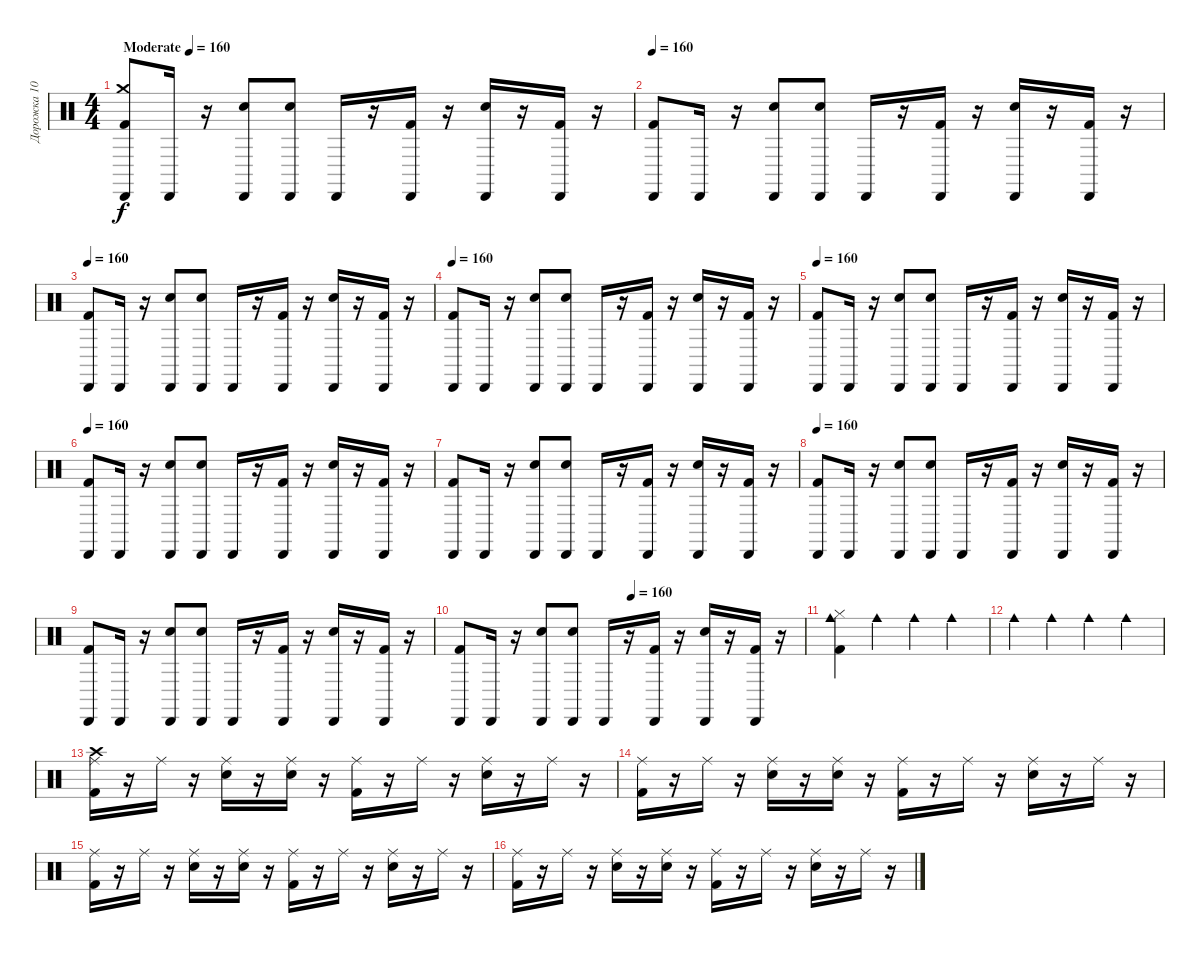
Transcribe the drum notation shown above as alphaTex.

\track ("Дорожка 10" "Дорожка 10") {instrument percussion}
\staff {score}
\articulation defaults
\ts (4 4)
\tempo (160 "Moderate")
\clef neutral
\ks c
("Cabasa (hit)" "Crash medium (hit)" "Kick (hit) 2").8{dy f} "Cabasa (hit)".16 r.16 ("Cabasa (hit)" "Electric Snare (hit)").8 ("Cabasa (hit)" "Electric Snare (hit)").8 "Cabasa (hit)".16 r.16 ("Cabasa (hit)" "Kick (hit) 2").16 r.16 ("Cabasa (hit)" "Electric Snare (hit)").16 r.16 ("Cabasa (hit)" "Kick (hit) 2").16 r.16 |
\tempo 160
("Cabasa (hit)" "Kick (hit) 2").8 "Cabasa (hit)".16 r.16 ("Cabasa (hit)" "Electric Snare (hit)").8 ("Cabasa (hit)" "Electric Snare (hit)").8 "Cabasa (hit)".16 r.16 ("Cabasa (hit)" "Kick (hit) 2").16 r.16 ("Cabasa (hit)" "Electric Snare (hit)").16 r.16 ("Cabasa (hit)" "Kick (hit) 2").16 r.16 |
\tempo 160
("Kick (hit) 2" "Cabasa (hit)").8 "Cabasa (hit)".16 r.16 ("Electric Snare (hit)" "Cabasa (hit)").8 ("Electric Snare (hit)" "Cabasa (hit)").8 "Cabasa (hit)".16 r.16 ("Kick (hit) 2" "Cabasa (hit)").16 r.16 ("Electric Snare (hit)" "Cabasa (hit)").16 r.16 ("Kick (hit) 2" "Cabasa (hit)").16 r.16 |
\tempo 160
("Kick (hit) 2" "Cabasa (hit)").8 "Cabasa (hit)".16 r.16 ("Electric Snare (hit)" "Cabasa (hit)").8 ("Electric Snare (hit)" "Cabasa (hit)").8 "Cabasa (hit)".16 r.16 ("Kick (hit) 2" "Cabasa (hit)").16 r.16 ("Electric Snare (hit)" "Cabasa (hit)").16 r.16 ("Kick (hit) 2" "Cabasa (hit)").16 r.16 |
\tempo 160
("Kick (hit) 2" "Cabasa (hit)").8 "Cabasa (hit)".16 r.16 ("Electric Snare (hit)" "Cabasa (hit)").8 ("Electric Snare (hit)" "Cabasa (hit)").8 "Cabasa (hit)".16 r.16 ("Kick (hit) 2" "Cabasa (hit)").16 r.16 ("Electric Snare (hit)" "Cabasa (hit)").16 r.16 ("Kick (hit) 2" "Cabasa (hit)").16 r.16 |
\tempo 160
("Kick (hit) 2" "Cabasa (hit)").8 "Cabasa (hit)".16 r.16 ("Electric Snare (hit)" "Cabasa (hit)").8 ("Electric Snare (hit)" "Cabasa (hit)").8 "Cabasa (hit)".16 r.16 ("Kick (hit) 2" "Cabasa (hit)").16 r.16 ("Electric Snare (hit)" "Cabasa (hit)").16 r.16 ("Kick (hit) 2" "Cabasa (hit)").16 r.16 |
("Cabasa (hit)" "Kick (hit) 2").8 "Cabasa (hit)".16 r.16 ("Cabasa (hit)" "Electric Snare (hit)").8 ("Cabasa (hit)" "Electric Snare (hit)").8 "Cabasa (hit)".16 r.16 ("Cabasa (hit)" "Kick (hit) 2").16 r.16 ("Cabasa (hit)" "Electric Snare (hit)").16 r.16 ("Cabasa (hit)" "Kick (hit) 2").16 r.16 |
\tempo 160
("Cabasa (hit)" "Kick (hit) 2").8 "Cabasa (hit)".16 r.16 ("Cabasa (hit)" "Electric Snare (hit)").8 ("Cabasa (hit)" "Electric Snare (hit)").8 "Cabasa (hit)".16 r.16 ("Cabasa (hit)" "Kick (hit) 2").16 r.16 ("Cabasa (hit)" "Electric Snare (hit)").16 r.16 ("Cabasa (hit)" "Kick (hit) 2").16 r.16 |
("Cabasa (hit)" "Kick (hit) 2").8 "Cabasa (hit)".16 r.16 ("Electric Snare (hit)" "Cabasa (hit)").8 ("Electric Snare (hit)" "Cabasa (hit)").8 "Cabasa (hit)".16 r.16 ("Kick (hit) 2" "Cabasa (hit)").16 r.16 ("Electric Snare (hit)" "Cabasa (hit)").16 r.16 ("Kick (hit) 2" "Cabasa (hit)").16 r.16 |
\tempo (160 0.5)
("Cabasa (hit)" "Kick (hit) 2").8 "Cabasa (hit)".16 r.16 ("Electric Snare (hit)" "Cabasa (hit)").8 ("Electric Snare (hit)" "Cabasa (hit)").8 "Cabasa (hit)".16 r.16 ("Kick (hit) 2" "Cabasa (hit)").16 r.16 ("Electric Snare (hit)" "Cabasa (hit)").16 r.16 ("Kick (hit) 2" "Cabasa (hit)").16 r.16 |
("Cowbell medium (hit)" "Hi-Hat (closed)" "Kick (hit) 2").4 "Cowbell medium (hit)".4 "Cowbell medium (hit)".4 "Cowbell medium (hit)".4 |
"Cowbell medium (hit)".4 "Cowbell medium (hit)".4 "Cowbell medium (hit)".4 "Cowbell medium (hit)".4 |
("Ride (middle)" "Crash high (hit)" "Kick (hit) 2").16 r.16 "Ride (middle)".16 r.16 ("Ride (middle)" "Electric Snare (hit)").16 r.16 ("Ride (middle)" "Electric Snare (hit)").16 r.16 ("Ride (middle)" "Kick (hit) 2").16 r.16 "Ride (middle)".16 r.16 ("Ride (middle)" "Electric Snare (hit)").16 r.16 "Ride (middle)".16 r.16 |
("Ride (middle)" "Kick (hit) 2").16 r.16 "Ride (middle)".16 r.16 ("Ride (middle)" "Electric Snare (hit)").16 r.16 ("Ride (middle)" "Electric Snare (hit)").16 r.16 ("Ride (middle)" "Kick (hit) 2").16 r.16 "Ride (middle)".16 r.16 ("Ride (middle)" "Electric Snare (hit)").16 r.16 "Ride (middle)".16 r.16 |
("Ride (middle)" "Kick (hit) 2").16 r.16 "Ride (middle)".16 r.16 ("Ride (middle)" "Electric Snare (hit)").16 r.16 ("Ride (middle)" "Electric Snare (hit)").16 r.16 ("Ride (middle)" "Kick (hit) 2").16 r.16 "Ride (middle)".16 r.16 ("Ride (middle)" "Electric Snare (hit)").16 r.16 "Ride (middle)".16 r.16 |
("Ride (middle)" "Kick (hit) 2").16 r.16 "Ride (middle)".16 r.16 ("Ride (middle)" "Electric Snare (hit)").16 r.16 ("Ride (middle)" "Electric Snare (hit)").16 r.16 ("Ride (middle)" "Kick (hit) 2").16 r.16 "Ride (middle)".16 r.16 ("Ride (middle)" "Electric Snare (hit)").16 r.16 "Ride (middle)".16 r.16
